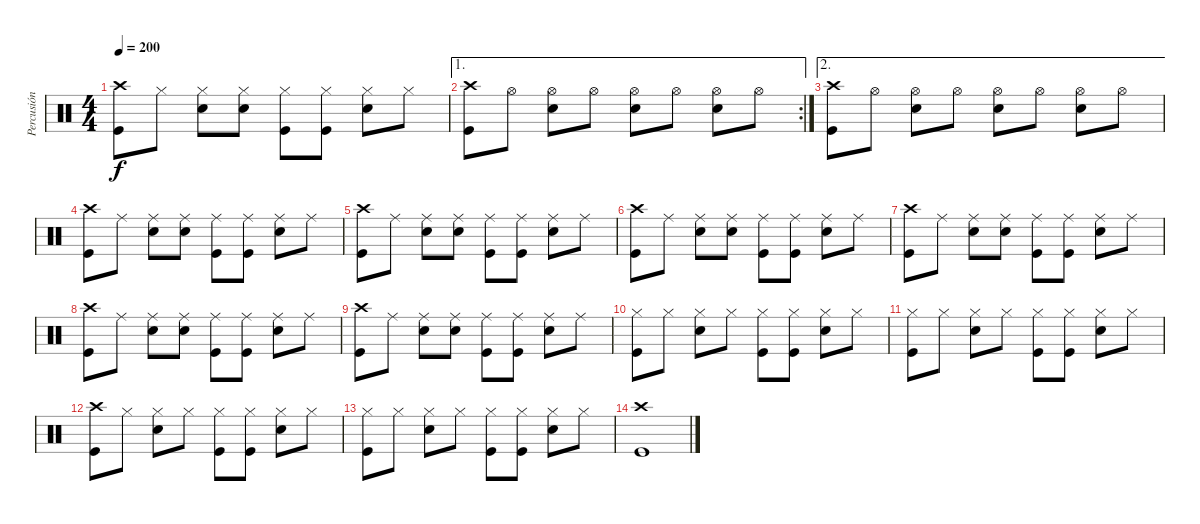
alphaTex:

\track ("Percusión" "Percusión") {instrument percussion}
\staff {score}
\articulation defaults
\ts (4 4)
\tempo 200
\clef neutral
\ks c
("Crash high (hit)" "Kick (hit)").8{dy f} "Hi-Hat (closed)".8 ("Hi-Hat (closed)" "Snare (hit) 2").8 ("Hi-Hat (closed)" "Snare (hit) 2").8 ("Hi-Hat (closed)" "Kick (hit)").8 ("Hi-Hat (closed)" "Kick (hit)").8 ("Hi-Hat (closed)" "Snare (hit) 2").8 "Hi-Hat (closed)".8 |
\ae 1
\rc 2
("Crash high (hit)" "Kick (hit)").8 "Hi-Hat (open)".8 ("Hi-Hat (open)" "Snare (hit) 2").8 "Hi-Hat (open)".8 ("Hi-Hat (open)" "Snare (hit) 2").8 "Hi-Hat (open)".8 ("Hi-Hat (open)" "Snare (hit) 2").8 "Hi-Hat (open)".8 |
\ae 2
("Crash high (hit)" "Kick (hit)").8 "Hi-Hat (open)".8 ("Hi-Hat (open)" "Snare (hit) 2").8 "Hi-Hat (open)".8 ("Hi-Hat (open)" "Snare (hit) 2").8 "Hi-Hat (open)".8 ("Hi-Hat (open)" "Snare (hit) 2").8 "Hi-Hat (open)".8 |
("Crash high (hit)" "Kick (hit)").8 "Ride (middle)".8 ("Ride (middle)" "Snare (hit) 2").8 ("Ride (middle)" "Snare (hit) 2").8 ("Ride (middle)" "Kick (hit)").8 ("Ride (middle)" "Kick (hit)").8 ("Ride (middle)" "Snare (hit) 2").8 "Ride (middle)".8 |
("Crash high (hit)" "Kick (hit)").8 "Ride (middle)".8 ("Ride (middle)" "Snare (hit) 2").8 ("Ride (middle)" "Snare (hit) 2").8 ("Ride (middle)" "Kick (hit)").8 ("Ride (middle)" "Kick (hit)").8 ("Ride (middle)" "Snare (hit) 2").8 "Ride (middle)".8 |
("Crash high (hit)" "Kick (hit)").8 "Ride (middle)".8 ("Ride (middle)" "Snare (hit) 2").8 ("Ride (middle)" "Snare (hit) 2").8 ("Ride (middle)" "Kick (hit)").8 ("Ride (middle)" "Kick (hit)").8 ("Ride (middle)" "Snare (hit) 2").8 "Ride (middle)".8 |
("Crash high (hit)" "Kick (hit)").8 "Ride (middle)".8 ("Ride (middle)" "Snare (hit) 2").8 ("Ride (middle)" "Snare (hit) 2").8 ("Ride (middle)" "Kick (hit)").8 ("Ride (middle)" "Kick (hit)").8 ("Ride (middle)" "Snare (hit) 2").8 "Ride (middle)".8 |
("Crash high (hit)" "Kick (hit)").8 "Ride (middle)".8 ("Ride (middle)" "Snare (hit) 2").8 ("Ride (middle)" "Snare (hit) 2").8 ("Ride (middle)" "Kick (hit)").8 ("Ride (middle)" "Kick (hit)").8 ("Ride (middle)" "Snare (hit) 2").8 "Ride (middle)".8 |
("Crash high (hit)" "Kick (hit)").8 "Ride (middle)".8 ("Ride (middle)" "Snare (hit) 2").8 ("Ride (middle)" "Snare (hit) 2").8 ("Ride (middle)" "Kick (hit)").8 ("Ride (middle)" "Kick (hit)").8 ("Ride (middle)" "Snare (hit) 2").8 "Ride (middle)".8 |
("Hi-Hat (closed)" "Kick (hit)").8 "Hi-Hat (closed)".8 ("Hi-Hat (closed)" "Snare (hit) 2").8 "Hi-Hat (closed)".8 ("Hi-Hat (closed)" "Kick (hit)").8 ("Hi-Hat (closed)" "Kick (hit)").8 ("Hi-Hat (closed)" "Snare (hit) 2").8 "Hi-Hat (closed)".8 |
("Hi-Hat (closed)" "Kick (hit)").8 "Hi-Hat (closed)".8 ("Hi-Hat (closed)" "Snare (hit) 2").8 "Hi-Hat (closed)".8 ("Hi-Hat (closed)" "Kick (hit)").8 ("Hi-Hat (closed)" "Kick (hit)").8 ("Hi-Hat (closed)" "Snare (hit) 2").8 "Hi-Hat (closed)".8 |
("Crash high (hit)" "Kick (hit)").8 "Hi-Hat (closed)".8 ("Hi-Hat (closed)" "Snare (hit) 2").8 "Hi-Hat (closed)".8 ("Hi-Hat (closed)" "Kick (hit)").8 ("Hi-Hat (closed)" "Kick (hit)").8 ("Hi-Hat (closed)" "Snare (hit) 2").8 "Hi-Hat (closed)".8 |
("Hi-Hat (closed)" "Kick (hit)").8 "Hi-Hat (closed)".8 ("Hi-Hat (closed)" "Snare (hit) 2").8 "Hi-Hat (closed)".8 ("Hi-Hat (closed)" "Kick (hit)").8 ("Hi-Hat (closed)" "Kick (hit)").8 ("Hi-Hat (closed)" "Snare (hit) 2").8 "Hi-Hat (closed)".8 |
("Crash high (hit)" "Kick (hit)").1
